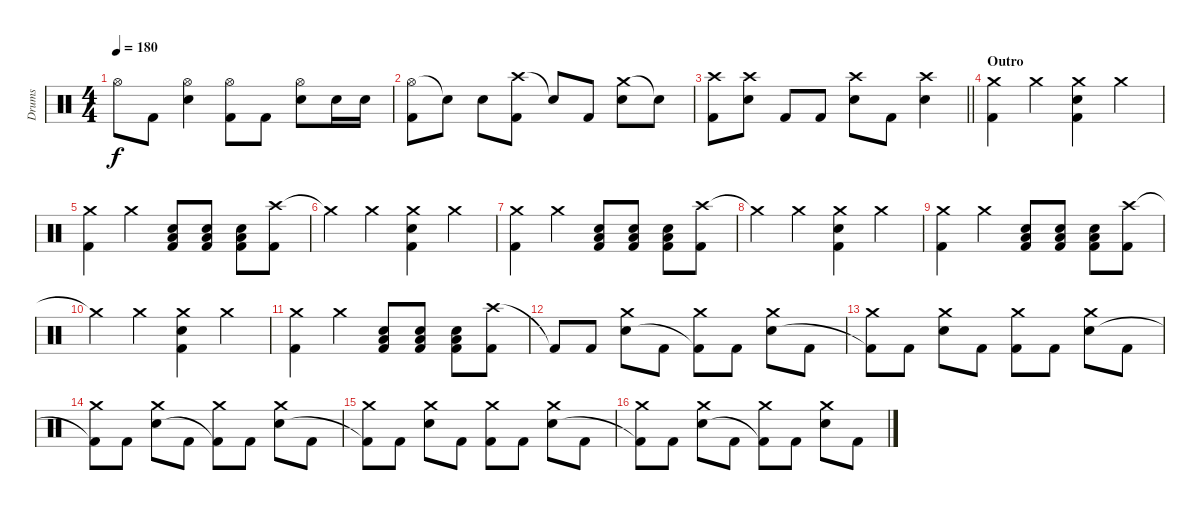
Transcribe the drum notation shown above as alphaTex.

\track ("Drums" "Drums") {instrument percussion}
\staff {score}
\articulation defaults
\ts (4 4)
\tempo 180
\clef neutral
\ks c "Hi-Hat (open)".8{dy f} "Kick (hit) 2".8
("Hi-Hat (open)" "Electric Snare (hit)").4 ("Hi-Hat (open)" "Kick (hit) 2").8 "Kick (hit) 2".8 ("Hi-Hat (open)" "Electric Snare (hit)").8 "Electric Snare (hit)".16 "Electric Snare (hit)".16 |
("Hi-Hat (open)" "Kick (hit) 2").8 "Snare (hit)"{t}.8 "Electric Snare (hit)".8 ("Crash high (hit)" "Kick (hit) 2").8 "Snare (hit)"{t}.8 "Kick (hit) 2".8 ("Crash medium (hit)" "Electric Snare (hit)").8 "Snare (hit)"{t}.8 |
\barLineRight lightlight
("Crash high (hit)" "Kick (hit) 2").8 ("Crash high (hit)" "Electric Snare (hit)").8 "Kick (hit) 2".8 "Kick (hit) 2".8 ("Crash high (hit)" "Electric Snare (hit)").8 "Kick (hit) 2".8 ("Crash high (hit)" "Electric Snare (hit)").4 |
\section ("" "Outro")
("Crash medium (hit)" "Kick (hit) 2").4 "Crash medium (hit)".4 ("Crash medium (hit)" "Electric Snare (hit)" "Kick (hit) 2").4 "Crash medium (hit)".4 |
("Crash medium (hit)" "Kick (hit) 2").4 "Crash medium (hit)".4 ("Low Floor Tom (hit)" "Electric Snare (hit)" "Kick (hit) 2").8 ("Low Floor Tom (hit)" "Electric Snare (hit)" "Kick (hit) 2").8 ("Low Floor Tom (hit)" "Electric Snare (hit)" "Kick (hit) 2").8 ("Crash high (hit)" "Kick (hit) 2").8 |
"Crash medium (hit)"{t}.4 "Crash medium (hit)".4 ("Crash medium (hit)" "Electric Snare (hit)" "Kick (hit) 2").4 "Crash medium (hit)".4 |
("Crash medium (hit)" "Kick (hit) 2").4 "Crash medium (hit)".4 ("Low Floor Tom (hit)" "Electric Snare (hit)" "Kick (hit) 2").8 ("Low Floor Tom (hit)" "Electric Snare (hit)" "Kick (hit) 2").8 ("Low Floor Tom (hit)" "Electric Snare (hit)" "Kick (hit) 2").8 ("Crash high (hit)" "Kick (hit) 2").8 |
"Crash medium (hit)"{t}.4 "Crash medium (hit)".4 ("Crash medium (hit)" "Electric Snare (hit)" "Kick (hit) 2").4 "Crash medium (hit)".4 |
("Crash medium (hit)" "Kick (hit) 2").4 "Crash medium (hit)".4 ("Low Floor Tom (hit)" "Electric Snare (hit)" "Kick (hit) 2").8 ("Low Floor Tom (hit)" "Electric Snare (hit)" "Kick (hit) 2").8 ("Low Floor Tom (hit)" "Electric Snare (hit)" "Kick (hit) 2").8 ("Crash high (hit)" "Kick (hit) 2").8 |
"Crash medium (hit)"{t}.4 "Crash medium (hit)".4 ("Crash medium (hit)" "Electric Snare (hit)" "Kick (hit) 2").4 "Crash medium (hit)".4 |
("Crash medium (hit)" "Kick (hit) 2").4 "Crash medium (hit)".4 ("Low Floor Tom (hit)" "Electric Snare (hit)" "Kick (hit) 2").8 ("Low Floor Tom (hit)" "Electric Snare (hit)" "Kick (hit) 2").8 ("Low Floor Tom (hit)" "Electric Snare (hit)" "Kick (hit) 2").8 ("Crash high (hit)" "Kick (hit) 2").8 |
"Kick (hit) 2"{t}.8 "Kick (hit) 2".8 ("Crash medium (hit)" "Electric Snare (hit)").8 "Kick (hit) 2".8 ("Crash medium (hit)" "Kick (hit) 2"{t}).8 "Kick (hit) 2".8 ("Crash medium (hit)" "Electric Snare (hit)").8 "Kick (hit) 2".8 |
("Crash medium (hit)" "Kick (hit) 2"{t}).8 "Kick (hit) 2".8 ("Crash medium (hit)" "Electric Snare (hit)").8 "Kick (hit) 2".8 ("Crash medium (hit)" "Kick (hit) 2").8 "Kick (hit) 2".8 ("Crash medium (hit)" "Electric Snare (hit)").8 "Kick (hit) 2".8 |
("Crash medium (hit)" "Kick (hit) 2"{t}).8 "Kick (hit) 2".8 ("Crash medium (hit)" "Electric Snare (hit)").8 "Kick (hit) 2".8 ("Crash medium (hit)" "Kick (hit) 2"{t}).8 "Kick (hit) 2".8 ("Crash medium (hit)" "Electric Snare (hit)").8 "Kick (hit) 2".8 |
("Crash medium (hit)" "Kick (hit) 2"{t}).8 "Kick (hit) 2".8 ("Crash medium (hit)" "Electric Snare (hit)").8 "Kick (hit) 2".8 ("Crash medium (hit)" "Kick (hit) 2").8 "Kick (hit) 2".8 ("Crash medium (hit)" "Electric Snare (hit)").8 "Kick (hit) 2".8 |
("Crash medium (hit)" "Kick (hit) 2"{t}).8 "Kick (hit) 2".8 ("Crash medium (hit)" "Electric Snare (hit)").8 "Kick (hit) 2".8 ("Crash medium (hit)" "Kick (hit) 2"{t}).8 "Kick (hit) 2".8 ("Crash medium (hit)" "Electric Snare (hit)").8 "Kick (hit) 2".8
